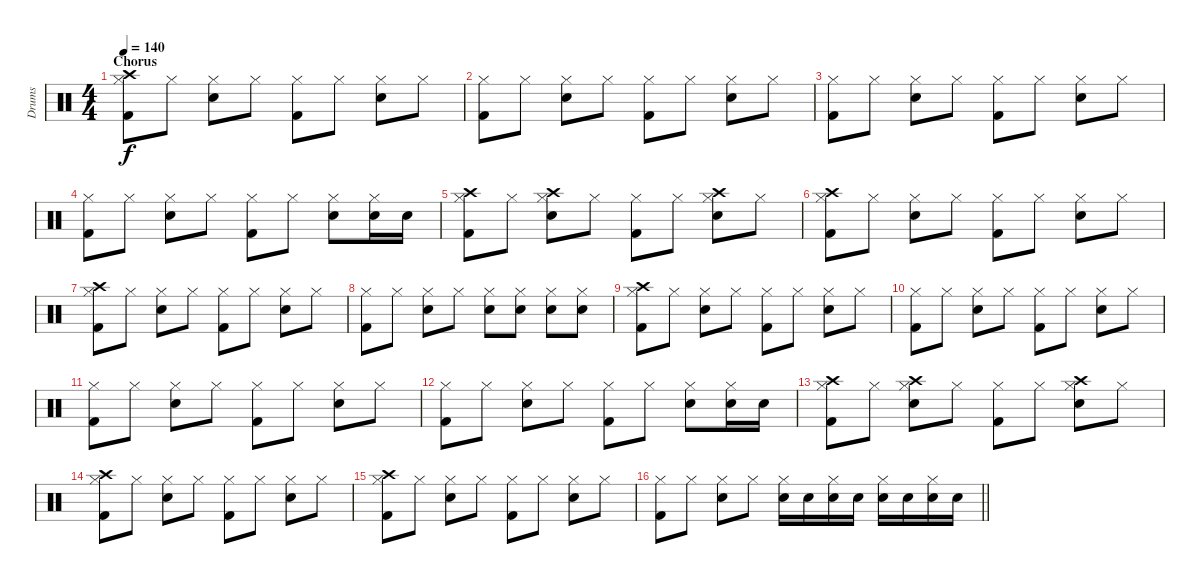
\track ("Drums" "Drums") {instrument percussion}
\staff {score}
\articulation defaults
\ts (4 4)
\section ("" "Chorus")
\tempo 140
\clef neutral
\ks c
("Hi-Hat (closed)" "Crash high (hit)" "Kick (hit) 2").8{dy f} "Hi-Hat (closed)".8 ("Hi-Hat (closed)" "Snare (hit) 2").8 "Hi-Hat (closed)".8 ("Hi-Hat (closed)" "Kick (hit) 2").8 "Hi-Hat (closed)".8 ("Hi-Hat (closed)" "Snare (hit) 2").8 "Hi-Hat (closed)".8 |
("Hi-Hat (closed)" "Kick (hit) 2").8 "Hi-Hat (closed)".8 ("Hi-Hat (closed)" "Snare (hit) 2").8 "Hi-Hat (closed)".8 ("Hi-Hat (closed)" "Kick (hit) 2").8 "Hi-Hat (closed)".8 ("Hi-Hat (closed)" "Snare (hit) 2").8 "Hi-Hat (closed)".8 |
("Hi-Hat (closed)" "Kick (hit) 2").8 "Hi-Hat (closed)".8 ("Hi-Hat (closed)" "Snare (hit) 2").8 "Hi-Hat (closed)".8 ("Hi-Hat (closed)" "Kick (hit) 2").8 "Hi-Hat (closed)".8 ("Hi-Hat (closed)" "Snare (hit) 2").8 "Hi-Hat (closed)".8 |
("Hi-Hat (closed)" "Kick (hit) 2").8 "Hi-Hat (closed)".8 ("Hi-Hat (closed)" "Snare (hit) 2").8 "Hi-Hat (closed)".8 ("Hi-Hat (closed)" "Kick (hit) 2").8 "Hi-Hat (closed)".8 ("Hi-Hat (closed)" "Snare (hit) 2").8 ("Hi-Hat (closed)" "Snare (hit) 2").16 "Snare (hit) 2".16 |
("Hi-Hat (closed)" "Crash high (hit)" "Kick (hit) 2").8 "Hi-Hat (closed)".8 ("Hi-Hat (closed)" "Crash high (hit)" "Snare (hit) 2").8 "Hi-Hat (closed)".8 ("Hi-Hat (closed)" "Kick (hit) 2").8 "Hi-Hat (closed)".8 ("Hi-Hat (closed)" "Crash high (hit)" "Snare (hit) 2").8 "Hi-Hat (closed)".8 |
("Hi-Hat (closed)" "Crash high (hit)" "Kick (hit) 2").8 "Hi-Hat (closed)".8 ("Hi-Hat (closed)" "Snare (hit) 2").8 "Hi-Hat (closed)".8 ("Hi-Hat (closed)" "Kick (hit) 2").8 "Hi-Hat (closed)".8 ("Hi-Hat (closed)" "Snare (hit) 2").8 "Hi-Hat (closed)".8 |
("Hi-Hat (closed)" "Crash high (hit)" "Kick (hit) 2").8 "Hi-Hat (closed)".8 ("Hi-Hat (closed)" "Snare (hit) 2").8 "Hi-Hat (closed)".8 ("Hi-Hat (closed)" "Kick (hit) 2").8 "Hi-Hat (closed)".8 ("Hi-Hat (closed)" "Snare (hit) 2").8 "Hi-Hat (closed)".8 |
("Hi-Hat (closed)" "Kick (hit) 2").8 "Hi-Hat (closed)".8 ("Hi-Hat (closed)" "Snare (hit) 2").8 "Hi-Hat (closed)".8 ("Hi-Hat (closed)" "Snare (hit) 2").8 ("Hi-Hat (closed)" "Snare (hit) 2").8 ("Hi-Hat (closed)" "Snare (hit) 2").8 ("Hi-Hat (closed)" "Snare (hit) 2").8 |
("Hi-Hat (closed)" "Crash high (hit)" "Kick (hit) 2").8 "Hi-Hat (closed)".8 ("Hi-Hat (closed)" "Snare (hit) 2").8 "Hi-Hat (closed)".8 ("Hi-Hat (closed)" "Kick (hit) 2").8 "Hi-Hat (closed)".8 ("Hi-Hat (closed)" "Snare (hit) 2").8 "Hi-Hat (closed)".8 |
("Hi-Hat (closed)" "Kick (hit) 2").8 "Hi-Hat (closed)".8 ("Hi-Hat (closed)" "Snare (hit) 2").8 "Hi-Hat (closed)".8 ("Hi-Hat (closed)" "Kick (hit) 2").8 "Hi-Hat (closed)".8 ("Hi-Hat (closed)" "Snare (hit) 2").8 "Hi-Hat (closed)".8 |
("Hi-Hat (closed)" "Kick (hit) 2").8 "Hi-Hat (closed)".8 ("Hi-Hat (closed)" "Snare (hit) 2").8 "Hi-Hat (closed)".8 ("Hi-Hat (closed)" "Kick (hit) 2").8 "Hi-Hat (closed)".8 ("Hi-Hat (closed)" "Snare (hit) 2").8 "Hi-Hat (closed)".8 |
("Hi-Hat (closed)" "Kick (hit) 2").8 "Hi-Hat (closed)".8 ("Hi-Hat (closed)" "Snare (hit) 2").8 "Hi-Hat (closed)".8 ("Hi-Hat (closed)" "Kick (hit) 2").8 "Hi-Hat (closed)".8 ("Hi-Hat (closed)" "Snare (hit) 2").8 ("Hi-Hat (closed)" "Snare (hit) 2").16 "Snare (hit) 2".16 |
("Hi-Hat (closed)" "Crash high (hit)" "Kick (hit) 2").8 "Hi-Hat (closed)".8 ("Hi-Hat (closed)" "Crash high (hit)" "Snare (hit) 2").8 "Hi-Hat (closed)".8 ("Hi-Hat (closed)" "Kick (hit) 2").8 "Hi-Hat (closed)".8 ("Hi-Hat (closed)" "Crash high (hit)" "Snare (hit) 2").8 "Hi-Hat (closed)".8 |
("Hi-Hat (closed)" "Crash high (hit)" "Kick (hit) 2").8 "Hi-Hat (closed)".8 ("Hi-Hat (closed)" "Snare (hit) 2").8 "Hi-Hat (closed)".8 ("Hi-Hat (closed)" "Kick (hit) 2").8 "Hi-Hat (closed)".8 ("Hi-Hat (closed)" "Snare (hit) 2").8 "Hi-Hat (closed)".8 |
("Hi-Hat (closed)" "Crash high (hit)" "Kick (hit) 2").8 "Hi-Hat (closed)".8 ("Hi-Hat (closed)" "Snare (hit) 2").8 "Hi-Hat (closed)".8 ("Hi-Hat (closed)" "Kick (hit) 2").8 "Hi-Hat (closed)".8 ("Hi-Hat (closed)" "Snare (hit) 2").8 "Hi-Hat (closed)".8 |
\barLineRight lightlight
("Hi-Hat (closed)" "Kick (hit) 2").8 "Hi-Hat (closed)".8 ("Hi-Hat (closed)" "Snare (hit) 2").8 "Hi-Hat (closed)".8 ("Hi-Hat (closed)" "Snare (hit) 2").16 "Snare (hit) 2".16 ("Hi-Hat (closed)" "Snare (hit) 2").16 "Snare (hit) 2".16 ("Hi-Hat (closed)" "Snare (hit) 2").16 "Snare (hit) 2".16 ("Hi-Hat (closed)" "Snare (hit) 2").16 "Snare (hit) 2".16
